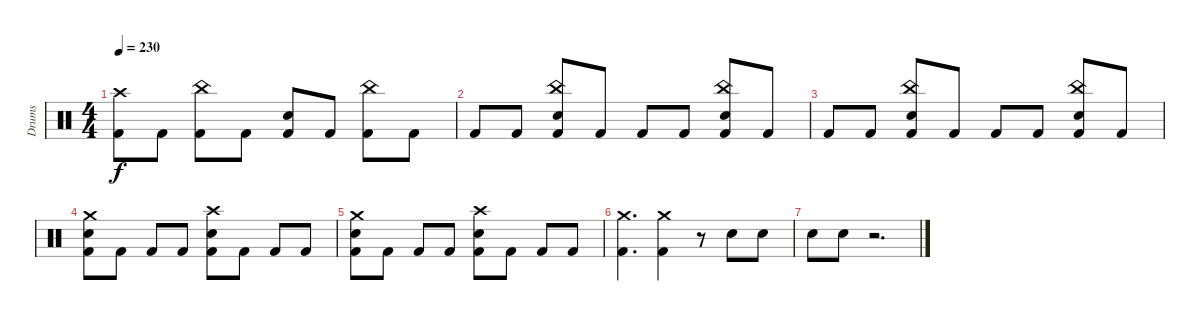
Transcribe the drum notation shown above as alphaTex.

\track ("Drums" "Drums") {instrument percussion}
\staff {score}
\articulation defaults
\ts (4 4)
\tempo 230
\clef neutral
\ks c
("Crash high (hit)" "Kick (hit) 2").8{dy f} "Kick (hit) 2".8 ("China (hit)" "Kick (hit) 2").8 "Kick (hit) 2".8 ("Electric Snare (hit)" "Kick (hit) 2").8 "Kick (hit) 2".8 ("China (hit)" "Kick (hit) 2").8 "Kick (hit) 2".8 |
"Kick (hit) 2".8 "Kick (hit) 2".8 ("China (hit)" "Electric Snare (hit)" "Kick (hit) 2").8 "Kick (hit) 2".8 "Kick (hit) 2".8 "Kick (hit) 2".8 ("China (hit)" "Electric Snare (hit)" "Kick (hit) 2").8 "Kick (hit) 2".8 |
"Kick (hit) 2".8 "Kick (hit) 2".8 ("China (hit)" "Electric Snare (hit)" "Kick (hit) 2").8 "Kick (hit) 2".8 "Kick (hit) 2".8 "Kick (hit) 2".8 ("China (hit)" "Electric Snare (hit)" "Kick (hit) 2").8 "Kick (hit) 2".8 |
("Crash medium (hit)" "Electric Snare (hit)" "Kick (hit) 2").8 "Kick (hit) 2".8 "Kick (hit) 2".8 "Kick (hit) 2".8 ("Crash high (hit)" "Electric Snare (hit)" "Kick (hit) 2").8 "Kick (hit) 2".8 "Kick (hit) 2".8 "Kick (hit) 2".8 |
("Crash medium (hit)" "Electric Snare (hit)" "Kick (hit) 2").8 "Kick (hit) 2".8 "Kick (hit) 2".8 "Kick (hit) 2".8 ("Crash high (hit)" "Electric Snare (hit)" "Kick (hit) 2").8 "Kick (hit) 2".8 "Kick (hit) 2".8 "Kick (hit) 2".8 |
("Crash medium (hit)" "Kick (hit) 2").4{d} ("Crash medium (hit)" "Kick (hit) 2").4 r.8{volume 0} "Electric Snare (hit)".8{volume 16} "Electric Snare (hit)".8 |
"Electric Snare (hit)".8 "Electric Snare (hit)".8 r.2{d}
